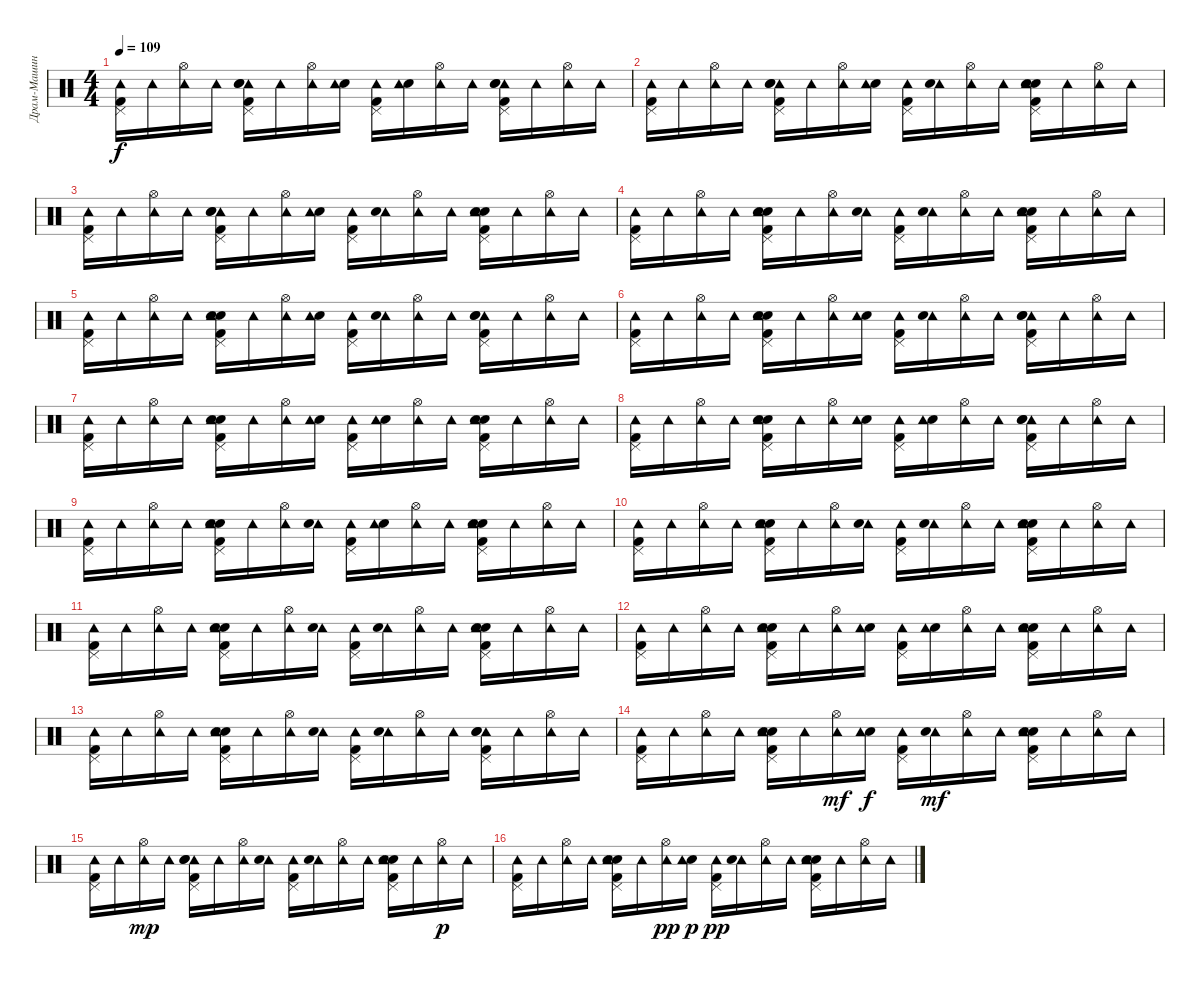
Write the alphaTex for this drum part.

\track ("Драм-Машина" "Драм-Машин") {instrument percussion}
\staff {score}
\articulation defaults
\ts (4 4)
\tempo 109
\clef neutral
\ks c
("Pedal Hi-Hat (hit)" "Kick (hit) 2" "Tambourine (hit)").16{dy f} "Tambourine (hit)".16 ("Tambourine (hit)" "Hi-Hat (open)").16 "Tambourine (hit)".16 ("Tambourine (hit)" "Snare (hit) 2" "Kick (hit) 2" "Electric Snare (hit)" "Pedal Hi-Hat (hit)").16 "Tambourine (hit)".16 ("Tambourine (hit)" "Hi-Hat (open)").16 ("Electric Snare (hit)" "Tambourine (hit)").16 ("Kick (hit) 2" "Pedal Hi-Hat (hit)" "Tambourine (hit)").16 ("Electric Snare (hit)" "Tambourine (hit)").16 ("Hi-Hat (open)" "Tambourine (hit)").16 "Tambourine (hit)".16 ("Tambourine (hit)" "Electric Snare (hit)" "Pedal Hi-Hat (hit)" "Kick (hit) 2" "Snare (hit) 2").16 "Tambourine (hit)".16 ("Tambourine (hit)" "Hi-Hat (open)").16 "Tambourine (hit)".16 |
("Kick (hit) 2" "Tambourine (hit)" "Pedal Hi-Hat (hit)").16 "Tambourine (hit)".16 ("Tambourine (hit)" "Hi-Hat (open)").16 "Tambourine (hit)".16 ("Tambourine (hit)" "Pedal Hi-Hat (hit)" "Electric Snare (hit)" "Snare (hit) 2" "Kick (hit) 2").16 "Tambourine (hit)".16 ("Hi-Hat (open)" "Tambourine (hit)").16 ("Electric Snare (hit)" "Tambourine (hit)").16 ("Pedal Hi-Hat (hit)" "Kick (hit) 2" "Tambourine (hit)").16 ("Tambourine (hit)" "Electric Snare (hit)").16 ("Hi-Hat (open)" "Tambourine (hit)").16 "Tambourine (hit)".16 ("Snare (hit) 2" "Electric Snare (hit)" "Kick (hit) 2" "Pedal Hi-Hat (hit)" "Tambourine (hit)").16 "Tambourine (hit)".16 ("Tambourine (hit)" "Hi-Hat (open)").16 "Tambourine (hit)".16 |
("Tambourine (hit)" "Kick (hit) 2" "Pedal Hi-Hat (hit)").16 "Tambourine (hit)".16 ("Hi-Hat (open)" "Tambourine (hit)").16 "Tambourine (hit)".16 ("Kick (hit) 2" "Tambourine (hit)" "Electric Snare (hit)" "Pedal Hi-Hat (hit)" "Snare (hit) 2").16 "Tambourine (hit)".16 ("Tambourine (hit)" "Hi-Hat (open)").16 ("Electric Snare (hit)" "Tambourine (hit)").16 ("Pedal Hi-Hat (hit)" "Tambourine (hit)" "Kick (hit) 2").16 ("Tambourine (hit)" "Electric Snare (hit)").16 ("Hi-Hat (open)" "Tambourine (hit)").16 "Tambourine (hit)".16 ("Kick (hit) 2" "Pedal Hi-Hat (hit)" "Electric Snare (hit)" "Tambourine (hit)" "Snare (hit) 2").16 "Tambourine (hit)".16 ("Hi-Hat (open)" "Tambourine (hit)").16 "Tambourine (hit)".16 |
("Pedal Hi-Hat (hit)" "Tambourine (hit)" "Kick (hit) 2").16 "Tambourine (hit)".16 ("Tambourine (hit)" "Hi-Hat (open)").16 "Tambourine (hit)".16 ("Snare (hit) 2" "Kick (hit) 2" "Tambourine (hit)" "Pedal Hi-Hat (hit)" "Electric Snare (hit)").16 "Tambourine (hit)".16 ("Tambourine (hit)" "Hi-Hat (open)").16 ("Tambourine (hit)" "Electric Snare (hit)").16 ("Tambourine (hit)" "Kick (hit) 2" "Pedal Hi-Hat (hit)").16 ("Tambourine (hit)" "Electric Snare (hit)").16 ("Tambourine (hit)" "Hi-Hat (open)").16 "Tambourine (hit)".16 ("Kick (hit) 2" "Electric Snare (hit)" "Pedal Hi-Hat (hit)" "Snare (hit) 2" "Tambourine (hit)").16 "Tambourine (hit)".16 ("Tambourine (hit)" "Hi-Hat (open)").16 "Tambourine (hit)".16 |
("Tambourine (hit)" "Kick (hit) 2" "Pedal Hi-Hat (hit)").16 "Tambourine (hit)".16 ("Tambourine (hit)" "Hi-Hat (open)").16 "Tambourine (hit)".16 ("Snare (hit) 2" "Pedal Hi-Hat (hit)" "Electric Snare (hit)" "Tambourine (hit)" "Kick (hit) 2").16 "Tambourine (hit)".16 ("Hi-Hat (open)" "Tambourine (hit)").16 ("Electric Snare (hit)" "Tambourine (hit)").16 ("Pedal Hi-Hat (hit)" "Tambourine (hit)" "Kick (hit) 2").16 ("Tambourine (hit)" "Electric Snare (hit)").16 ("Hi-Hat (open)" "Tambourine (hit)").16 "Tambourine (hit)".16 ("Tambourine (hit)" "Snare (hit) 2" "Electric Snare (hit)" "Kick (hit) 2" "Pedal Hi-Hat (hit)").16 "Tambourine (hit)".16 ("Tambourine (hit)" "Hi-Hat (open)").16 "Tambourine (hit)".16 |
("Tambourine (hit)" "Pedal Hi-Hat (hit)" "Kick (hit) 2").16 "Tambourine (hit)".16 ("Hi-Hat (open)" "Tambourine (hit)").16 "Tambourine (hit)".16 ("Snare (hit) 2" "Electric Snare (hit)" "Tambourine (hit)" "Kick (hit) 2" "Pedal Hi-Hat (hit)").16 "Tambourine (hit)".16 ("Hi-Hat (open)" "Tambourine (hit)").16 ("Electric Snare (hit)" "Tambourine (hit)").16 ("Pedal Hi-Hat (hit)" "Kick (hit) 2" "Tambourine (hit)").16 ("Tambourine (hit)" "Electric Snare (hit)").16 ("Tambourine (hit)" "Hi-Hat (open)").16 "Tambourine (hit)".16 ("Kick (hit) 2" "Pedal Hi-Hat (hit)" "Tambourine (hit)" "Snare (hit) 2" "Electric Snare (hit)").16 "Tambourine (hit)".16 ("Hi-Hat (open)" "Tambourine (hit)").16 "Tambourine (hit)".16 |
("Kick (hit) 2" "Pedal Hi-Hat (hit)" "Tambourine (hit)").16 "Tambourine (hit)".16 ("Tambourine (hit)" "Hi-Hat (open)").16 "Tambourine (hit)".16 ("Kick (hit) 2" "Electric Snare (hit)" "Tambourine (hit)" "Snare (hit) 2" "Pedal Hi-Hat (hit)").16 "Tambourine (hit)".16 ("Tambourine (hit)" "Hi-Hat (open)").16 ("Electric Snare (hit)" "Tambourine (hit)").16 ("Tambourine (hit)" "Pedal Hi-Hat (hit)" "Kick (hit) 2").16 ("Electric Snare (hit)" "Tambourine (hit)").16 ("Tambourine (hit)" "Hi-Hat (open)").16 "Tambourine (hit)".16 ("Snare (hit) 2" "Tambourine (hit)" "Electric Snare (hit)" "Pedal Hi-Hat (hit)" "Kick (hit) 2").16 "Tambourine (hit)".16 ("Tambourine (hit)" "Hi-Hat (open)").16 "Tambourine (hit)".16 |
("Kick (hit) 2" "Pedal Hi-Hat (hit)" "Tambourine (hit)").16 "Tambourine (hit)".16 ("Tambourine (hit)" "Hi-Hat (open)").16 "Tambourine (hit)".16 ("Electric Snare (hit)" "Snare (hit) 2" "Kick (hit) 2" "Tambourine (hit)" "Pedal Hi-Hat (hit)").16 "Tambourine (hit)".16 ("Tambourine (hit)" "Hi-Hat (open)").16 ("Electric Snare (hit)" "Tambourine (hit)").16 ("Tambourine (hit)" "Pedal Hi-Hat (hit)" "Kick (hit) 2").16 ("Electric Snare (hit)" "Tambourine (hit)").16 ("Hi-Hat (open)" "Tambourine (hit)").16 "Tambourine (hit)".16 ("Kick (hit) 2" "Tambourine (hit)" "Snare (hit) 2" "Pedal Hi-Hat (hit)" "Electric Snare (hit)").16 "Tambourine (hit)".16 ("Hi-Hat (open)" "Tambourine (hit)").16 "Tambourine (hit)".16 |
("Pedal Hi-Hat (hit)" "Kick (hit) 2" "Tambourine (hit)").16 "Tambourine (hit)".16 ("Hi-Hat (open)" "Tambourine (hit)").16 "Tambourine (hit)".16 ("Electric Snare (hit)" "Pedal Hi-Hat (hit)" "Kick (hit) 2" "Tambourine (hit)" "Snare (hit) 2").16 "Tambourine (hit)".16 ("Tambourine (hit)" "Hi-Hat (open)").16 ("Tambourine (hit)" "Electric Snare (hit)").16 ("Kick (hit) 2" "Tambourine (hit)" "Pedal Hi-Hat (hit)").16 ("Electric Snare (hit)" "Tambourine (hit)").16 ("Hi-Hat (open)" "Tambourine (hit)").16 "Tambourine (hit)".16 ("Kick (hit) 2" "Electric Snare (hit)" "Snare (hit) 2" "Pedal Hi-Hat (hit)" "Tambourine (hit)").16 "Tambourine (hit)".16 ("Hi-Hat (open)" "Tambourine (hit)").16 "Tambourine (hit)".16 |
("Tambourine (hit)" "Pedal Hi-Hat (hit)" "Kick (hit) 2").16 "Tambourine (hit)".16 ("Hi-Hat (open)" "Tambourine (hit)").16 "Tambourine (hit)".16 ("Snare (hit) 2" "Pedal Hi-Hat (hit)" "Kick (hit) 2" "Tambourine (hit)" "Electric Snare (hit)").16 "Tambourine (hit)".16 ("Hi-Hat (open)" "Tambourine (hit)").16 ("Tambourine (hit)" "Electric Snare (hit)").16 ("Kick (hit) 2" "Pedal Hi-Hat (hit)" "Tambourine (hit)").16 ("Tambourine (hit)" "Electric Snare (hit)").16 ("Hi-Hat (open)" "Tambourine (hit)").16 "Tambourine (hit)".16 ("Kick (hit) 2" "Snare (hit) 2" "Pedal Hi-Hat (hit)" "Tambourine (hit)" "Electric Snare (hit)").16 "Tambourine (hit)".16 ("Tambourine (hit)" "Hi-Hat (open)").16 "Tambourine (hit)".16 |
("Pedal Hi-Hat (hit)" "Tambourine (hit)" "Kick (hit) 2").16 "Tambourine (hit)".16 ("Tambourine (hit)" "Hi-Hat (open)").16 "Tambourine (hit)".16 ("Snare (hit) 2" "Tambourine (hit)" "Electric Snare (hit)" "Kick (hit) 2" "Pedal Hi-Hat (hit)").16 "Tambourine (hit)".16 ("Hi-Hat (open)" "Tambourine (hit)").16 ("Tambourine (hit)" "Electric Snare (hit)").16 ("Tambourine (hit)" "Kick (hit) 2" "Pedal Hi-Hat (hit)").16 ("Tambourine (hit)" "Electric Snare (hit)").16 ("Tambourine (hit)" "Hi-Hat (open)").16 "Tambourine (hit)".16 ("Snare (hit) 2" "Electric Snare (hit)" "Kick (hit) 2" "Tambourine (hit)" "Pedal Hi-Hat (hit)").16 "Tambourine (hit)".16 ("Hi-Hat (open)" "Tambourine (hit)").16 "Tambourine (hit)".16 |
("Pedal Hi-Hat (hit)" "Tambourine (hit)" "Kick (hit) 2").16 "Tambourine (hit)".16 ("Tambourine (hit)" "Hi-Hat (open)").16 "Tambourine (hit)".16 ("Electric Snare (hit)" "Kick (hit) 2" "Snare (hit) 2" "Tambourine (hit)" "Pedal Hi-Hat (hit)").16 "Tambourine (hit)".16 ("Tambourine (hit)" "Hi-Hat (open)").16 ("Electric Snare (hit)" "Tambourine (hit)").16 ("Kick (hit) 2" "Pedal Hi-Hat (hit)" "Tambourine (hit)").16 ("Electric Snare (hit)" "Tambourine (hit)").16 ("Hi-Hat (open)" "Tambourine (hit)").16 "Tambourine (hit)".16 ("Kick (hit) 2" "Electric Snare (hit)" "Tambourine (hit)" "Snare (hit) 2" "Pedal Hi-Hat (hit)").16 "Tambourine (hit)".16 ("Hi-Hat (open)" "Tambourine (hit)").16 "Tambourine (hit)".16 |
("Kick (hit) 2" "Tambourine (hit)" "Pedal Hi-Hat (hit)").16 "Tambourine (hit)".16 ("Hi-Hat (open)" "Tambourine (hit)").16 "Tambourine (hit)".16 ("Snare (hit) 2" "Electric Snare (hit)" "Tambourine (hit)" "Kick (hit) 2" "Pedal Hi-Hat (hit)").16 "Tambourine (hit)".16 ("Hi-Hat (open)" "Tambourine (hit)").16 ("Tambourine (hit)" "Electric Snare (hit)").16 ("Kick (hit) 2" "Pedal Hi-Hat (hit)" "Tambourine (hit)").16 ("Tambourine (hit)" "Electric Snare (hit)").16 ("Tambourine (hit)" "Hi-Hat (open)").16 "Tambourine (hit)".16 ("Tambourine (hit)" "Electric Snare (hit)" "Kick (hit) 2" "Snare (hit) 2" "Pedal Hi-Hat (hit)").16 "Tambourine (hit)".16 ("Hi-Hat (open)" "Tambourine (hit)").16 "Tambourine (hit)".16 |
("Pedal Hi-Hat (hit)" "Tambourine (hit)" "Kick (hit) 2").16 "Tambourine (hit)".16 ("Hi-Hat (open)" "Tambourine (hit)").16 "Tambourine (hit)".16 ("Snare (hit) 2" "Tambourine (hit)" "Electric Snare (hit)" "Pedal Hi-Hat (hit)" "Kick (hit) 2").16 "Tambourine (hit)".16 ("Tambourine (hit)" "Hi-Hat (open)").16{dy mf} ("Electric Snare (hit)" "Tambourine (hit)").16{dy f} ("Kick (hit) 2" "Tambourine (hit)" "Pedal Hi-Hat (hit)").16 ("Tambourine (hit)" "Electric Snare (hit)").16{dy mf} ("Hi-Hat (open)" "Tambourine (hit)").16 "Tambourine (hit)".16 ("Pedal Hi-Hat (hit)" "Snare (hit) 2" "Electric Snare (hit)" "Kick (hit) 2" "Tambourine (hit)").16 "Tambourine (hit)".16 ("Hi-Hat (open)" "Tambourine (hit)").16 "Tambourine (hit)".16 |
("Pedal Hi-Hat (hit)" "Kick (hit) 2" "Tambourine (hit)").16 "Tambourine (hit)".16 ("Tambourine (hit)" "Hi-Hat (open)").16{dy mp} "Tambourine (hit)".16 ("Pedal Hi-Hat (hit)" "Tambourine (hit)" "Electric Snare (hit)" "Kick (hit) 2" "Snare (hit) 2").16 "Tambourine (hit)".16 ("Hi-Hat (open)" "Tambourine (hit)").16 ("Tambourine (hit)" "Electric Snare (hit)").16 ("Kick (hit) 2" "Tambourine (hit)" "Pedal Hi-Hat (hit)").16 ("Tambourine (hit)" "Electric Snare (hit)").16 ("Hi-Hat (open)" "Tambourine (hit)").16 "Tambourine (hit)".16 ("Pedal Hi-Hat (hit)" "Snare (hit) 2" "Kick (hit) 2" "Electric Snare (hit)" "Tambourine (hit)").16 "Tambourine (hit)".16 ("Tambourine (hit)" "Hi-Hat (open)").16{dy p} "Tambourine (hit)".16 |
("Tambourine (hit)" "Kick (hit) 2" "Pedal Hi-Hat (hit)").16 "Tambourine (hit)".16 ("Tambourine (hit)" "Hi-Hat (open)").16 "Tambourine (hit)".16 ("Snare (hit) 2" "Electric Snare (hit)" "Pedal Hi-Hat (hit)" "Kick (hit) 2" "Tambourine (hit)").16 "Tambourine (hit)".16 ("Tambourine (hit)" "Hi-Hat (open)").16{dy pp} ("Electric Snare (hit)" "Tambourine (hit)").16{dy p} ("Kick (hit) 2" "Tambourine (hit)" "Pedal Hi-Hat (hit)").16{dy pp} ("Tambourine (hit)" "Electric Snare (hit)").16 ("Hi-Hat (open)" "Tambourine (hit)").16 "Tambourine (hit)".16 ("Snare (hit) 2" "Tambourine (hit)" "Pedal Hi-Hat (hit)" "Kick (hit) 2" "Electric Snare (hit)").16 "Tambourine (hit)".16 ("Tambourine (hit)" "Hi-Hat (open)").16 "Tambourine (hit)".16
